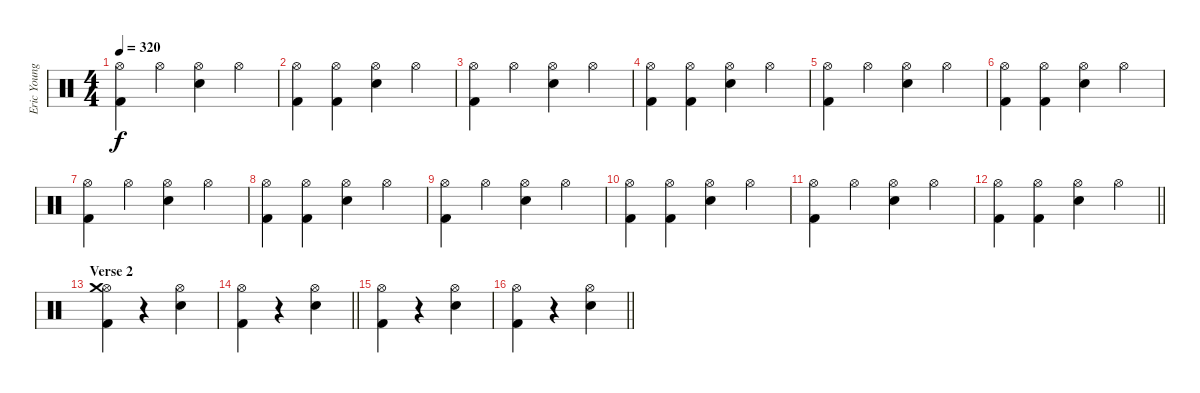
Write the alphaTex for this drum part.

\track ("Eric Young (Drums)" "Eric Young") {instrument percussion}
\staff {score}
\articulation defaults
\ts (4 4)
\tempo 320
\clef neutral
\ks c
("Hi-Hat (open)" "Kick (hit) 2").4{dy f} "Hi-Hat (open)".4 ("Hi-Hat (open)" "Snare (hit) 2").4 "Hi-Hat (open)".4 |
("Hi-Hat (open)" "Kick (hit) 2").4 ("Hi-Hat (open)" "Kick (hit) 2").4 ("Hi-Hat (open)" "Snare (hit) 2").4 "Hi-Hat (open)".4 |
("Hi-Hat (open)" "Kick (hit) 2").4 "Hi-Hat (open)".4 ("Hi-Hat (open)" "Snare (hit) 2").4 "Hi-Hat (open)".4 |
("Hi-Hat (open)" "Kick (hit) 2").4 ("Hi-Hat (open)" "Kick (hit) 2").4 ("Hi-Hat (open)" "Snare (hit) 2").4 "Hi-Hat (open)".4 |
("Hi-Hat (open)" "Kick (hit) 2").4 "Hi-Hat (open)".4 ("Hi-Hat (open)" "Snare (hit) 2").4 "Hi-Hat (open)".4 |
("Hi-Hat (open)" "Kick (hit) 2").4 ("Hi-Hat (open)" "Kick (hit) 2").4 ("Hi-Hat (open)" "Snare (hit) 2").4 "Hi-Hat (open)".4 |
("Hi-Hat (open)" "Kick (hit) 2").4 "Hi-Hat (open)".4 ("Hi-Hat (open)" "Snare (hit) 2").4 "Hi-Hat (open)".4 |
("Hi-Hat (open)" "Kick (hit) 2").4 ("Hi-Hat (open)" "Kick (hit) 2").4 ("Hi-Hat (open)" "Snare (hit) 2").4 "Hi-Hat (open)".4 |
("Hi-Hat (open)" "Kick (hit) 2").4 "Hi-Hat (open)".4 ("Hi-Hat (open)" "Snare (hit) 2").4 "Hi-Hat (open)".4 |
("Hi-Hat (open)" "Kick (hit) 2").4 ("Hi-Hat (open)" "Kick (hit) 2").4 ("Hi-Hat (open)" "Snare (hit) 2").4 "Hi-Hat (open)".4 |
("Hi-Hat (open)" "Kick (hit) 2").4 "Hi-Hat (open)".4 ("Hi-Hat (open)" "Snare (hit) 2").4 "Hi-Hat (open)".4 |
\barLineRight lightlight
("Hi-Hat (open)" "Kick (hit) 2").4 ("Hi-Hat (open)" "Kick (hit) 2").4 ("Hi-Hat (open)" "Snare (hit) 2").4 "Hi-Hat (open)".4 |
\section ("" "Verse 2")
("Hi-Hat (open)" "Kick (hit) 2" "Crash medium (hit)").4 r.4 ("Hi-Hat (open)" "Snare (hit) 2").4 |
\barLineRight lightlight
("Hi-Hat (open)" "Kick (hit) 2").4 r.4 ("Hi-Hat (open)" "Snare (hit) 2").4 |
("Hi-Hat (open)" "Kick (hit) 2").4 r.4 ("Hi-Hat (open)" "Snare (hit) 2").4 |
\barLineRight lightlight
("Hi-Hat (open)" "Kick (hit) 2").4 r.4 ("Hi-Hat (open)" "Snare (hit) 2").4
